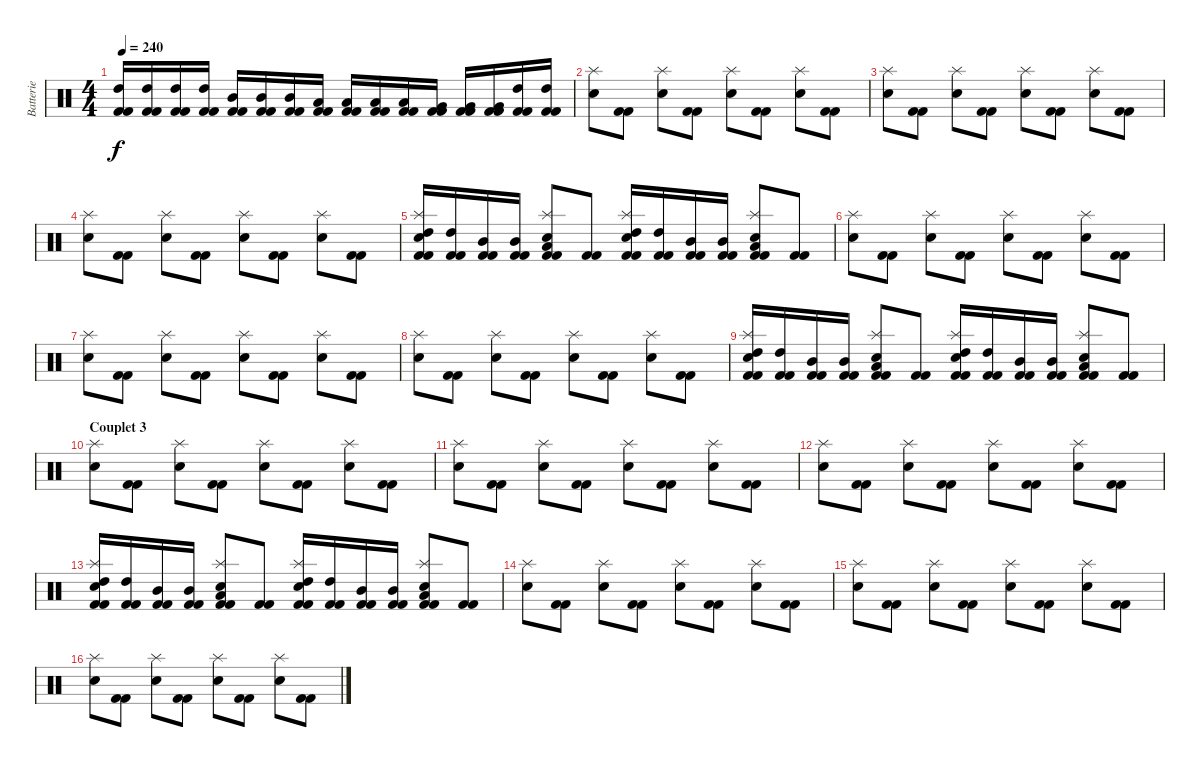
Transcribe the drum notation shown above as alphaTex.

\track ("Batterie" "Batterie") {instrument percussion}
\staff {score}
\articulation defaults
\ts (4 4)
\tempo 240
\clef neutral
\ks c
("High Tom (hit)" "Kick (hit) 2" "Kick (hit) 2").16{dy f} ("High Tom (hit)" "Kick (hit) 2" "Kick (hit) 2").16 ("High Tom (hit)" "Kick (hit) 2" "Kick (hit) 2").16 ("High Tom (hit)" "Kick (hit) 2" "Kick (hit) 2").16 ("Mid Tom (hit)" "Kick (hit) 2" "Kick (hit) 2").16 ("Mid Tom (hit)" "Kick (hit) 2" "Kick (hit) 2").16 ("Mid Tom (hit)" "Kick (hit) 2" "Kick (hit) 2").16 ("Low Tom (hit)" "Kick (hit) 2" "Kick (hit) 2").16 ("Low Tom (hit)" "Kick (hit) 2" "Kick (hit) 2").16 ("Low Tom (hit)" "Kick (hit) 2" "Kick (hit) 2").16 ("Low Tom (hit)" "Kick (hit) 2" "Kick (hit) 2").16 ("Very Low Tom (hit)" "Kick (hit) 2" "Kick (hit) 2").16 ("Very Low Tom (hit)" "Kick (hit) 2" "Kick (hit) 2").16 ("Very Low Tom (hit)" "Kick (hit) 2" "Kick (hit) 2").16 ("High Tom (hit)" "Kick (hit) 2" "Kick (hit) 2").16 ("High Tom (hit)" "Kick (hit) 2" "Kick (hit) 2").16 |
("Splash (hit)" "Snare (hit) 2").8 ("Kick (hit) 2" "Kick (hit) 2").8 ("Splash (hit)" "Snare (hit) 2").8 ("Kick (hit) 2" "Kick (hit) 2").8 ("Splash (hit)" "Snare (hit) 2").8 ("Kick (hit) 2" "Kick (hit) 2").8 ("Splash (hit)" "Snare (hit) 2").8 ("Kick (hit) 2" "Kick (hit) 2").8 |
("Splash (hit)" "Snare (hit) 2").8 ("Kick (hit) 2" "Kick (hit) 2").8 ("Splash (hit)" "Snare (hit) 2").8 ("Kick (hit) 2" "Kick (hit) 2").8 ("Splash (hit)" "Snare (hit) 2").8 ("Kick (hit) 2" "Kick (hit) 2").8 ("Splash (hit)" "Snare (hit) 2").8 ("Kick (hit) 2" "Kick (hit) 2").8 |
("Splash (hit)" "Snare (hit) 2").8 ("Kick (hit) 2" "Kick (hit) 2").8 ("Splash (hit)" "Snare (hit) 2").8 ("Kick (hit) 2" "Kick (hit) 2").8 ("Splash (hit)" "Snare (hit) 2").8 ("Kick (hit) 2" "Kick (hit) 2").8 ("Splash (hit)" "Snare (hit) 2").8 ("Kick (hit) 2" "Kick (hit) 2").8 |
("Splash (hit)" "Snare (hit) 2" "High Tom (hit)" "Kick (hit) 2" "Kick (hit) 2").16 ("High Tom (hit)" "Kick (hit) 2" "Kick (hit) 2").16 ("Mid Tom (hit)" "Kick (hit) 2" "Kick (hit) 2").16 ("Mid Tom (hit)" "Kick (hit) 2" "Kick (hit) 2").16 ("Splash (hit)" "Snare (hit) 2" "Low Tom (hit)" "Kick (hit) 2" "Kick (hit) 2").8 ("Kick (hit) 2" "Kick (hit) 2").8 ("Splash (hit)" "Snare (hit) 2" "High Tom (hit)" "Kick (hit) 2" "Kick (hit) 2").16 ("High Tom (hit)" "Kick (hit) 2" "Kick (hit) 2").16 ("Mid Tom (hit)" "Kick (hit) 2" "Kick (hit) 2").16 ("Mid Tom (hit)" "Kick (hit) 2" "Kick (hit) 2").16 ("Splash (hit)" "Snare (hit) 2" "Low Tom (hit)" "Kick (hit) 2" "Kick (hit) 2").8 ("Kick (hit) 2" "Kick (hit) 2").8 |
("Splash (hit)" "Snare (hit) 2").8 ("Kick (hit) 2" "Kick (hit) 2").8 ("Splash (hit)" "Snare (hit) 2").8 ("Kick (hit) 2" "Kick (hit) 2").8 ("Splash (hit)" "Snare (hit) 2").8 ("Kick (hit) 2" "Kick (hit) 2").8 ("Splash (hit)" "Snare (hit) 2").8 ("Kick (hit) 2" "Kick (hit) 2").8 |
("Splash (hit)" "Snare (hit) 2").8 ("Kick (hit) 2" "Kick (hit) 2").8 ("Splash (hit)" "Snare (hit) 2").8 ("Kick (hit) 2" "Kick (hit) 2").8 ("Splash (hit)" "Snare (hit) 2").8 ("Kick (hit) 2" "Kick (hit) 2").8 ("Splash (hit)" "Snare (hit) 2").8 ("Kick (hit) 2" "Kick (hit) 2").8 |
("Splash (hit)" "Snare (hit) 2").8 ("Kick (hit) 2" "Kick (hit) 2").8 ("Splash (hit)" "Snare (hit) 2").8 ("Kick (hit) 2" "Kick (hit) 2").8 ("Splash (hit)" "Snare (hit) 2").8 ("Kick (hit) 2" "Kick (hit) 2").8 ("Splash (hit)" "Snare (hit) 2").8 ("Kick (hit) 2" "Kick (hit) 2").8 |
("Splash (hit)" "Snare (hit) 2" "High Tom (hit)" "Kick (hit) 2" "Kick (hit) 2").16 ("High Tom (hit)" "Kick (hit) 2" "Kick (hit) 2").16 ("Mid Tom (hit)" "Kick (hit) 2" "Kick (hit) 2").16 ("Mid Tom (hit)" "Kick (hit) 2" "Kick (hit) 2").16 ("Splash (hit)" "Snare (hit) 2" "Low Tom (hit)" "Kick (hit) 2" "Kick (hit) 2").8 ("Kick (hit) 2" "Kick (hit) 2").8 ("Splash (hit)" "Snare (hit) 2" "High Tom (hit)" "Kick (hit) 2" "Kick (hit) 2").16 ("High Tom (hit)" "Kick (hit) 2" "Kick (hit) 2").16 ("Mid Tom (hit)" "Kick (hit) 2" "Kick (hit) 2").16 ("Mid Tom (hit)" "Kick (hit) 2" "Kick (hit) 2").16 ("Splash (hit)" "Snare (hit) 2" "Low Tom (hit)" "Kick (hit) 2" "Kick (hit) 2").8 ("Kick (hit) 2" "Kick (hit) 2").8 |
\section ("" "Couplet 3")
("Splash (hit)" "Snare (hit) 2").8 ("Kick (hit) 2" "Kick (hit) 2").8 ("Splash (hit)" "Snare (hit) 2").8 ("Kick (hit) 2" "Kick (hit) 2").8 ("Splash (hit)" "Snare (hit) 2").8 ("Kick (hit) 2" "Kick (hit) 2").8 ("Splash (hit)" "Snare (hit) 2").8 ("Kick (hit) 2" "Kick (hit) 2").8 |
("Splash (hit)" "Snare (hit) 2").8 ("Kick (hit) 2" "Kick (hit) 2").8 ("Splash (hit)" "Snare (hit) 2").8 ("Kick (hit) 2" "Kick (hit) 2").8 ("Splash (hit)" "Snare (hit) 2").8 ("Kick (hit) 2" "Kick (hit) 2").8 ("Splash (hit)" "Snare (hit) 2").8 ("Kick (hit) 2" "Kick (hit) 2").8 |
("Splash (hit)" "Snare (hit) 2").8 ("Kick (hit) 2" "Kick (hit) 2").8 ("Splash (hit)" "Snare (hit) 2").8 ("Kick (hit) 2" "Kick (hit) 2").8 ("Splash (hit)" "Snare (hit) 2").8 ("Kick (hit) 2" "Kick (hit) 2").8 ("Splash (hit)" "Snare (hit) 2").8 ("Kick (hit) 2" "Kick (hit) 2").8 |
("Splash (hit)" "Snare (hit) 2" "High Tom (hit)" "Kick (hit) 2" "Kick (hit) 2").16 ("High Tom (hit)" "Kick (hit) 2" "Kick (hit) 2").16 ("Mid Tom (hit)" "Kick (hit) 2" "Kick (hit) 2").16 ("Mid Tom (hit)" "Kick (hit) 2" "Kick (hit) 2").16 ("Splash (hit)" "Snare (hit) 2" "Low Tom (hit)" "Kick (hit) 2" "Kick (hit) 2").8 ("Kick (hit) 2" "Kick (hit) 2").8 ("Splash (hit)" "Snare (hit) 2" "High Tom (hit)" "Kick (hit) 2" "Kick (hit) 2").16 ("High Tom (hit)" "Kick (hit) 2" "Kick (hit) 2").16 ("Mid Tom (hit)" "Kick (hit) 2" "Kick (hit) 2").16 ("Mid Tom (hit)" "Kick (hit) 2" "Kick (hit) 2").16 ("Splash (hit)" "Snare (hit) 2" "Low Tom (hit)" "Kick (hit) 2" "Kick (hit) 2").8 ("Kick (hit) 2" "Kick (hit) 2").8 |
("Splash (hit)" "Snare (hit) 2").8 ("Kick (hit) 2" "Kick (hit) 2").8 ("Splash (hit)" "Snare (hit) 2").8 ("Kick (hit) 2" "Kick (hit) 2").8 ("Splash (hit)" "Snare (hit) 2").8 ("Kick (hit) 2" "Kick (hit) 2").8 ("Splash (hit)" "Snare (hit) 2").8 ("Kick (hit) 2" "Kick (hit) 2").8 |
("Splash (hit)" "Snare (hit) 2").8 ("Kick (hit) 2" "Kick (hit) 2").8 ("Splash (hit)" "Snare (hit) 2").8 ("Kick (hit) 2" "Kick (hit) 2").8 ("Splash (hit)" "Snare (hit) 2").8 ("Kick (hit) 2" "Kick (hit) 2").8 ("Splash (hit)" "Snare (hit) 2").8 ("Kick (hit) 2" "Kick (hit) 2").8 |
("Splash (hit)" "Snare (hit) 2").8 ("Kick (hit) 2" "Kick (hit) 2").8 ("Splash (hit)" "Snare (hit) 2").8 ("Kick (hit) 2" "Kick (hit) 2").8 ("Splash (hit)" "Snare (hit) 2").8 ("Kick (hit) 2" "Kick (hit) 2").8 ("Splash (hit)" "Snare (hit) 2").8 ("Kick (hit) 2" "Kick (hit) 2").8
